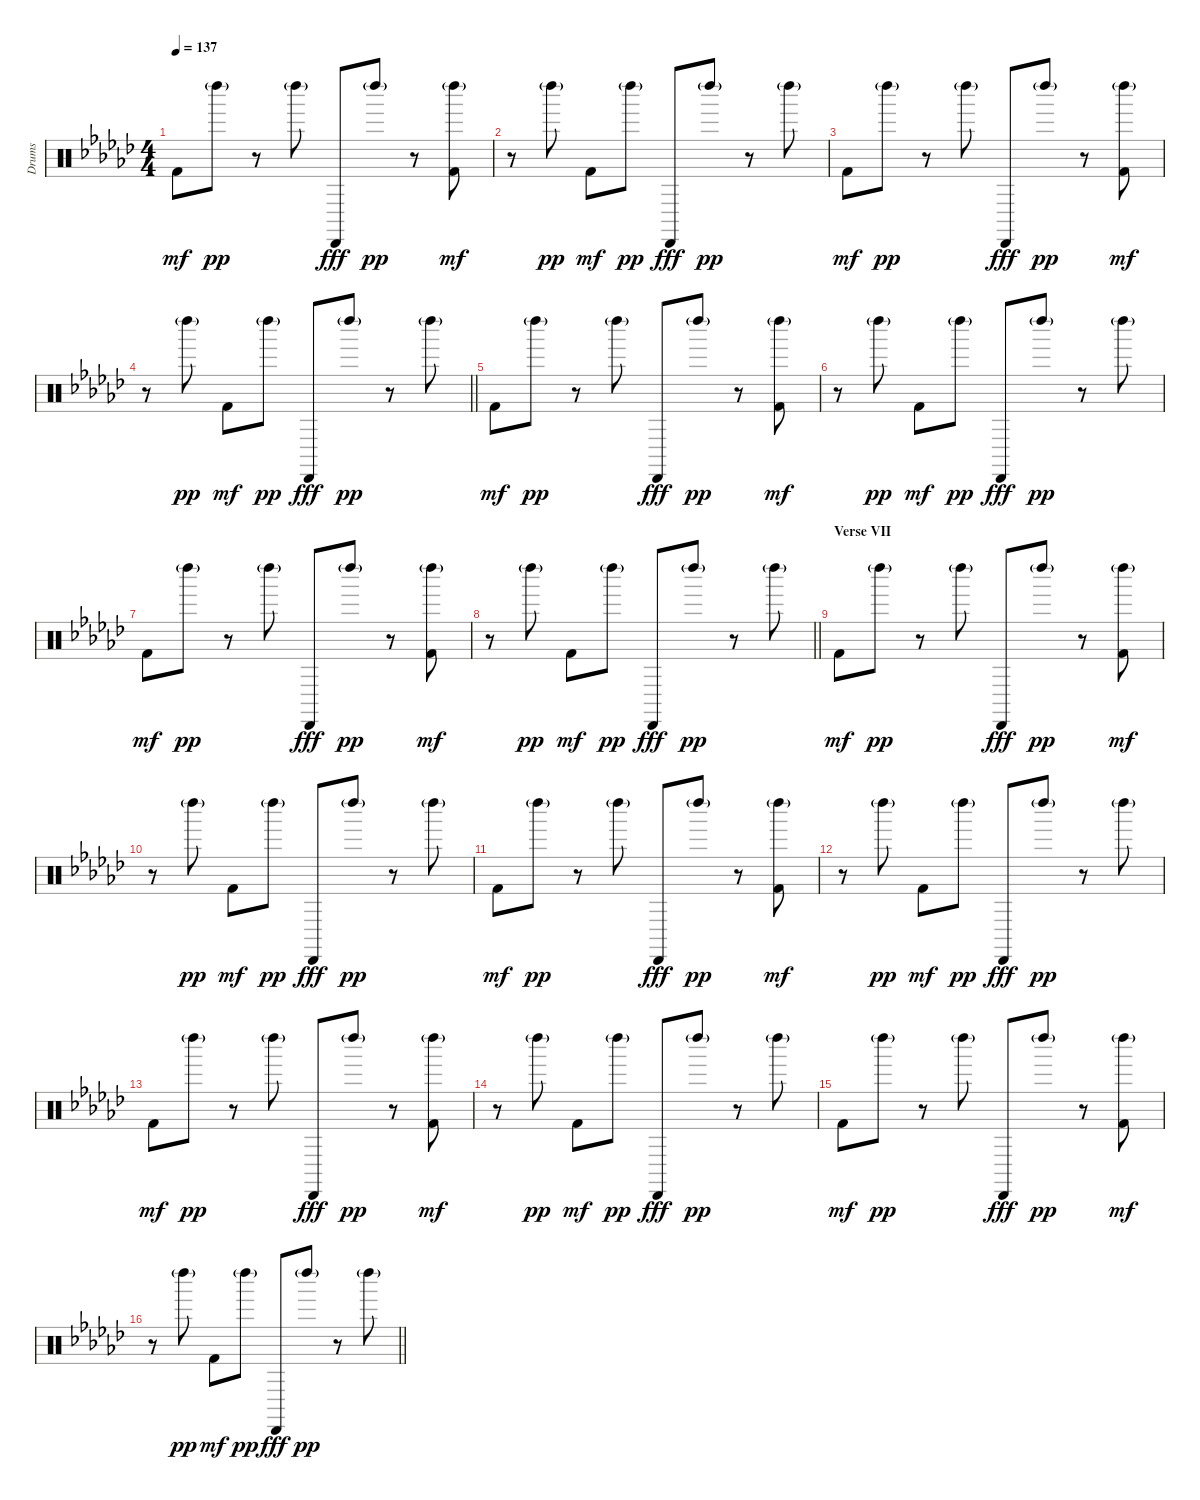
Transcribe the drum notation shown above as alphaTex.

\track ("Drums" "Drums") {instrument percussion}
\staff
\articulation defaults
\ts (4 4)
\tempo 137
\clef neutral
\ks ebminor "Kick (hit) 2".8{dy mf} "Left Maraca (hit)"{g}.8{dy pp}
r.8 "Left Maraca (hit)"{g}.8 "Cabasa (hit)".8{dy fff} "Left Maraca (hit)"{g}.8{dy pp} r.8 ("Left Maraca (hit)"{g} "Kick (hit) 2").8{dy mf} |
r.8 "Left Maraca (hit)"{g}.8{dy pp} "Kick (hit) 2".8{dy mf} "Left Maraca (hit)"{g}.8{dy pp} "Cabasa (hit)".8{dy fff} "Left Maraca (hit)"{g}.8{dy pp} r.8 "Left Maraca (hit)"{g}.8 |
"Kick (hit) 2".8{dy mf} "Left Maraca (hit)"{g}.8{dy pp} r.8 "Left Maraca (hit)"{g}.8 "Cabasa (hit)".8{dy fff} "Left Maraca (hit)"{g}.8{dy pp} r.8 ("Left Maraca (hit)"{g} "Kick (hit) 2").8{dy mf} |
\barLineRight lightlight
r.8 "Left Maraca (hit)"{g}.8{dy pp} "Kick (hit) 2".8{dy mf} "Left Maraca (hit)"{g}.8{dy pp} "Cabasa (hit)".8{dy fff} "Left Maraca (hit)"{g}.8{dy pp} r.8 "Left Maraca (hit)"{g}.8 |
"Kick (hit) 2".8{dy mf} "Left Maraca (hit)"{g}.8{dy pp} r.8 "Left Maraca (hit)"{g}.8 "Cabasa (hit)".8{dy fff} "Left Maraca (hit)"{g}.8{dy pp} r.8 ("Left Maraca (hit)"{g} "Kick (hit) 2").8{dy mf} |
r.8 "Left Maraca (hit)"{g}.8{dy pp} "Kick (hit) 2".8{dy mf} "Left Maraca (hit)"{g}.8{dy pp} "Cabasa (hit)".8{dy fff} "Left Maraca (hit)"{g}.8{dy pp} r.8 "Left Maraca (hit)"{g}.8 |
"Kick (hit) 2".8{dy mf} "Left Maraca (hit)"{g}.8{dy pp} r.8 "Left Maraca (hit)"{g}.8 "Cabasa (hit)".8{dy fff} "Left Maraca (hit)"{g}.8{dy pp} r.8 ("Left Maraca (hit)"{g} "Kick (hit) 2").8{dy mf} |
\barLineRight lightlight
r.8 "Left Maraca (hit)"{g}.8{dy pp} "Kick (hit) 2".8{dy mf} "Left Maraca (hit)"{g}.8{dy pp} "Cabasa (hit)".8{dy fff} "Left Maraca (hit)"{g}.8{dy pp} r.8 "Left Maraca (hit)"{g}.8 |
\section ("" "Verse VII")
"Kick (hit) 2".8{dy mf} "Left Maraca (hit)"{g}.8{dy pp} r.8 "Left Maraca (hit)"{g}.8 "Cabasa (hit)".8{dy fff} "Left Maraca (hit)"{g}.8{dy pp} r.8 ("Left Maraca (hit)"{g} "Kick (hit) 2").8{dy mf} |
r.8 "Left Maraca (hit)"{g}.8{dy pp} "Kick (hit) 2".8{dy mf} "Left Maraca (hit)"{g}.8{dy pp} "Cabasa (hit)".8{dy fff} "Left Maraca (hit)"{g}.8{dy pp} r.8 "Left Maraca (hit)"{g}.8 |
"Kick (hit) 2".8{dy mf} "Left Maraca (hit)"{g}.8{dy pp} r.8 "Left Maraca (hit)"{g}.8 "Cabasa (hit)".8{dy fff} "Left Maraca (hit)"{g}.8{dy pp} r.8 ("Left Maraca (hit)"{g} "Kick (hit) 2").8{dy mf} |
r.8 "Left Maraca (hit)"{g}.8{dy pp} "Kick (hit) 2".8{dy mf} "Left Maraca (hit)"{g}.8{dy pp} "Cabasa (hit)".8{dy fff} "Left Maraca (hit)"{g}.8{dy pp} r.8 "Left Maraca (hit)"{g}.8 |
"Kick (hit) 2".8{dy mf} "Left Maraca (hit)"{g}.8{dy pp} r.8 "Left Maraca (hit)"{g}.8 "Cabasa (hit)".8{dy fff} "Left Maraca (hit)"{g}.8{dy pp} r.8 ("Left Maraca (hit)"{g} "Kick (hit) 2").8{dy mf} |
r.8 "Left Maraca (hit)"{g}.8{dy pp} "Kick (hit) 2".8{dy mf} "Left Maraca (hit)"{g}.8{dy pp} "Cabasa (hit)".8{dy fff} "Left Maraca (hit)"{g}.8{dy pp} r.8 "Left Maraca (hit)"{g}.8 |
"Kick (hit) 2".8{dy mf} "Left Maraca (hit)"{g}.8{dy pp} r.8 "Left Maraca (hit)"{g}.8 "Cabasa (hit)".8{dy fff} "Left Maraca (hit)"{g}.8{dy pp} r.8 ("Left Maraca (hit)"{g} "Kick (hit) 2").8{dy mf} |
\barLineRight lightlight
r.8 "Left Maraca (hit)"{g}.8{dy pp} "Kick (hit) 2".8{dy mf} "Left Maraca (hit)"{g}.8{dy pp} "Cabasa (hit)".8{dy fff} "Left Maraca (hit)"{g}.8{dy pp} r.8 "Left Maraca (hit)"{g}.8
